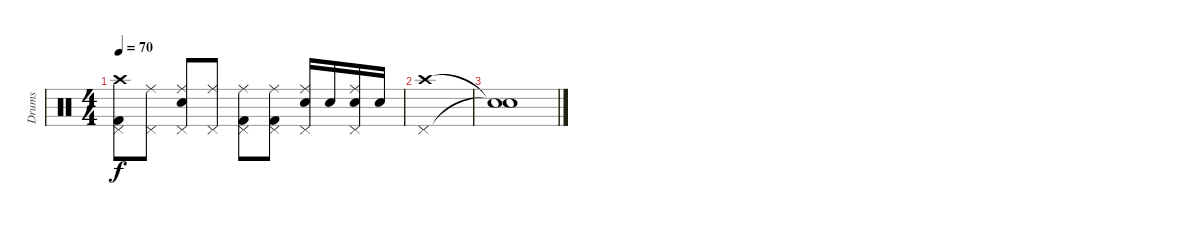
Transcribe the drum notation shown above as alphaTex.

\track ("Drums" "Drums") {instrument percussion}
\staff {score}
\articulation defaults
\ts (4 4)
\tempo 70
\clef neutral
\ks c
("Crash high (hit)" "Kick (hit) 2" "Pedal Hi-Hat (hit)").8{dy f} ("Ride (middle)" "Pedal Hi-Hat (hit)").8 ("Ride (middle)" "Electric Snare (hit)" "Pedal Hi-Hat (hit)").8 ("Ride (middle)" "Pedal Hi-Hat (hit)").8 ("Ride (middle)" "Kick (hit) 2" "Pedal Hi-Hat (hit)").8 ("Ride (middle)" "Kick (hit) 2" "Pedal Hi-Hat (hit)").8 ("Ride (middle)" "Electric Snare (hit)" "Pedal Hi-Hat (hit)").16 "Electric Snare (hit)".16 ("Ride (middle)" "Electric Snare (hit)" "Pedal Hi-Hat (hit)").16 "Electric Snare (hit)".16 |
("Crash high (hit)" "Pedal Hi-Hat (hit)").1 |
("Snare (hit)"{t} "Snare (hit)"{t}).1
